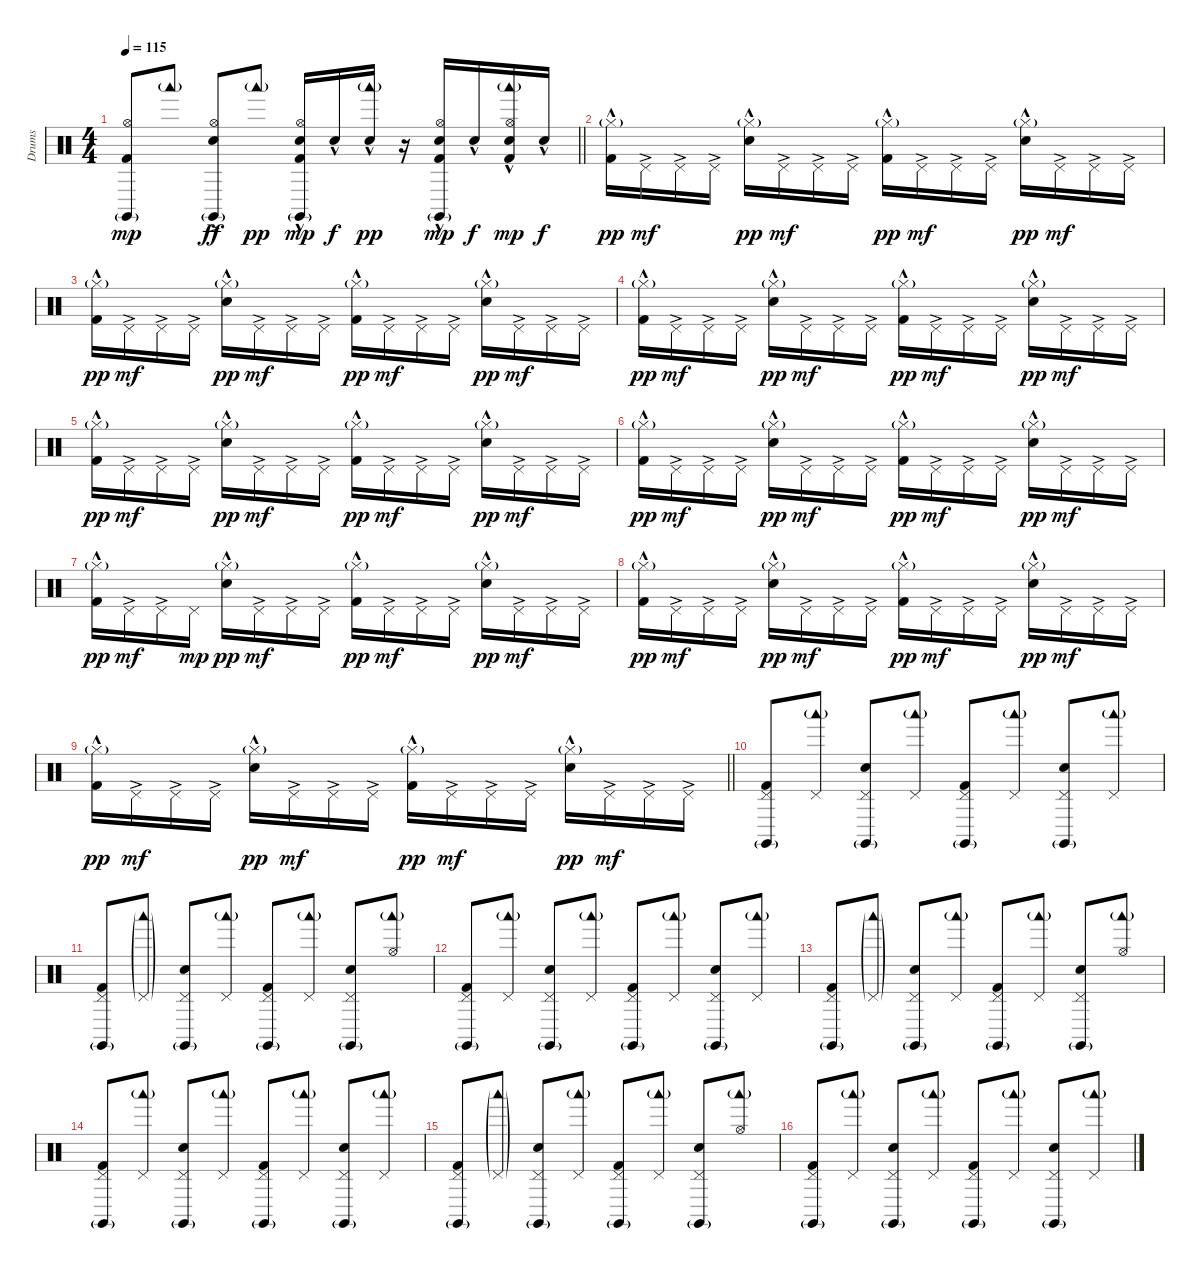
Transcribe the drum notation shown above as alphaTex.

\track ("Drums" "Drums") {instrument percussion}
\staff {score}
\articulation defaults
\ts (4 4)
\tempo 115
\clef neutral
\barLineRight lightlight
\ks c
("Claves (hit)"{g} "Hi-Hat (open)" "Kick (hit) 2").8{dy mp} "Woodblock low (hit)"{g}.8 ("Claves (hit)"{g} "Hi-Hat (open)" "Electric Snare (hit)"{ac}).8{dy ff} "Woodblock low (hit)"{g}.8{dy pp} ("Claves (hit)"{g} "Hi-Hat (open)" "Electric Snare (hit)"{hac} "Kick (hit) 2").16{dy mp} "Electric Snare (hit)"{hac}.16{dy f} ("Woodblock low (hit)"{g} "Electric Snare (hit)"{hac}).16{dy pp} r.16 ("Claves (hit)"{g} "Hi-Hat (open)" "Electric Snare (hit)"{hac} "Kick (hit) 2").16{dy mp} "Electric Snare (hit)"{hac}.16{dy f} ("Woodblock low (hit)"{g} "Hi-Hat (open)" "Electric Snare (hit)"{hac} "Kick (hit) 2").16{dy mp} "Electric Snare (hit)"{hac}.16{dy f} |
("Hi-Hat (closed)"{g} "Kick (hit) 2"{hac}).16{dy pp} "Pedal Hi-Hat (hit)"{ac}.16{dy mf} "Pedal Hi-Hat (hit)"{ac}.16 "Pedal Hi-Hat (hit)"{ac}.16 ("Hi-Hat (closed)"{g} "Electric Snare (hit)"{hac}).16{dy pp} "Pedal Hi-Hat (hit)"{ac}.16{dy mf} "Pedal Hi-Hat (hit)"{ac}.16 "Pedal Hi-Hat (hit)"{ac}.16 ("Hi-Hat (closed)"{g} "Kick (hit) 2"{hac}).16{dy pp} "Pedal Hi-Hat (hit)"{ac}.16{dy mf} "Pedal Hi-Hat (hit)"{ac}.16 "Pedal Hi-Hat (hit)"{ac}.16 ("Hi-Hat (closed)"{g} "Electric Snare (hit)"{hac}).16{dy pp} "Pedal Hi-Hat (hit)"{ac}.16{dy mf} "Pedal Hi-Hat (hit)"{ac}.16 "Pedal Hi-Hat (hit)"{ac}.16 |
("Hi-Hat (closed)"{g} "Kick (hit) 2"{hac}).16{dy pp} "Pedal Hi-Hat (hit)"{ac}.16{dy mf} "Pedal Hi-Hat (hit)"{ac}.16 "Pedal Hi-Hat (hit)"{ac}.16 ("Hi-Hat (closed)"{g} "Electric Snare (hit)"{hac}).16{dy pp} "Pedal Hi-Hat (hit)"{ac}.16{dy mf} "Pedal Hi-Hat (hit)"{ac}.16 "Pedal Hi-Hat (hit)"{ac}.16 ("Hi-Hat (closed)"{g} "Kick (hit) 2"{hac}).16{dy pp} "Pedal Hi-Hat (hit)"{ac}.16{dy mf} "Pedal Hi-Hat (hit)"{ac}.16 "Pedal Hi-Hat (hit)"{ac}.16 ("Hi-Hat (closed)"{g} "Electric Snare (hit)"{hac}).16{dy pp} "Pedal Hi-Hat (hit)"{ac}.16{dy mf} "Pedal Hi-Hat (hit)"{ac}.16 "Pedal Hi-Hat (hit)"{ac}.16 |
("Hi-Hat (closed)"{g} "Kick (hit) 2"{hac}).16{dy pp} "Pedal Hi-Hat (hit)"{ac}.16{dy mf} "Pedal Hi-Hat (hit)"{ac}.16 "Pedal Hi-Hat (hit)"{ac}.16 ("Hi-Hat (closed)"{g} "Electric Snare (hit)"{hac}).16{dy pp} "Pedal Hi-Hat (hit)"{ac}.16{dy mf} "Pedal Hi-Hat (hit)"{ac}.16 "Pedal Hi-Hat (hit)"{ac}.16 ("Hi-Hat (closed)"{g} "Kick (hit) 2"{hac}).16{dy pp} "Pedal Hi-Hat (hit)"{ac}.16{dy mf} "Pedal Hi-Hat (hit)"{ac}.16 "Pedal Hi-Hat (hit)"{ac}.16 ("Hi-Hat (closed)"{g} "Electric Snare (hit)"{hac}).16{dy pp} "Pedal Hi-Hat (hit)"{ac}.16{dy mf} "Pedal Hi-Hat (hit)"{ac}.16 "Pedal Hi-Hat (hit)"{ac}.16 |
("Hi-Hat (closed)"{g} "Kick (hit) 2"{hac}).16{dy pp} "Pedal Hi-Hat (hit)"{ac}.16{dy mf} "Pedal Hi-Hat (hit)"{ac}.16 "Pedal Hi-Hat (hit)"{ac}.16 ("Hi-Hat (closed)"{g} "Electric Snare (hit)"{hac}).16{dy pp} "Pedal Hi-Hat (hit)"{ac}.16{dy mf} "Pedal Hi-Hat (hit)"{ac}.16 "Pedal Hi-Hat (hit)"{ac}.16 ("Hi-Hat (closed)"{g} "Kick (hit) 2"{hac}).16{dy pp} "Pedal Hi-Hat (hit)"{ac}.16{dy mf} "Pedal Hi-Hat (hit)"{ac}.16 "Pedal Hi-Hat (hit)"{ac}.16 ("Hi-Hat (closed)"{g} "Electric Snare (hit)"{hac}).16{dy pp} "Pedal Hi-Hat (hit)"{ac}.16{dy mf} "Pedal Hi-Hat (hit)"{ac}.16 "Pedal Hi-Hat (hit)"{ac}.16 |
("Hi-Hat (closed)"{g} "Kick (hit) 2"{hac}).16{dy pp} "Pedal Hi-Hat (hit)"{ac}.16{dy mf} "Pedal Hi-Hat (hit)"{ac}.16 "Pedal Hi-Hat (hit)"{ac}.16 ("Hi-Hat (closed)"{g} "Electric Snare (hit)"{hac}).16{dy pp} "Pedal Hi-Hat (hit)"{ac}.16{dy mf} "Pedal Hi-Hat (hit)"{ac}.16 "Pedal Hi-Hat (hit)"{ac}.16 ("Hi-Hat (closed)"{g} "Kick (hit) 2"{hac}).16{dy pp} "Pedal Hi-Hat (hit)"{ac}.16{dy mf} "Pedal Hi-Hat (hit)"{ac}.16 "Pedal Hi-Hat (hit)"{ac}.16 ("Hi-Hat (closed)"{g} "Electric Snare (hit)"{hac}).16{dy pp} "Pedal Hi-Hat (hit)"{ac}.16{dy mf} "Pedal Hi-Hat (hit)"{ac}.16 "Pedal Hi-Hat (hit)"{ac}.16 |
("Hi-Hat (closed)"{g} "Kick (hit) 2"{hac}).16{dy pp} "Pedal Hi-Hat (hit)"{ac}.16{dy mf} "Pedal Hi-Hat (hit)"{ac}.16 "Pedal Hi-Hat (hit)".16{dy mp} ("Hi-Hat (closed)"{g} "Electric Snare (hit)"{hac}).16{dy pp} "Pedal Hi-Hat (hit)"{ac}.16{dy mf} "Pedal Hi-Hat (hit)"{ac}.16 "Pedal Hi-Hat (hit)"{ac}.16 ("Hi-Hat (closed)"{g} "Kick (hit) 2"{hac}).16{dy pp} "Pedal Hi-Hat (hit)"{ac}.16{dy mf} "Pedal Hi-Hat (hit)"{ac}.16 "Pedal Hi-Hat (hit)"{ac}.16 ("Hi-Hat (closed)"{g} "Electric Snare (hit)"{hac}).16{dy pp} "Pedal Hi-Hat (hit)"{ac}.16{dy mf} "Pedal Hi-Hat (hit)"{ac}.16 "Pedal Hi-Hat (hit)"{ac}.16 |
("Hi-Hat (closed)"{g} "Kick (hit) 2"{hac}).16{dy pp} "Pedal Hi-Hat (hit)"{ac}.16{dy mf} "Pedal Hi-Hat (hit)"{ac}.16 "Pedal Hi-Hat (hit)"{ac}.16 ("Hi-Hat (closed)"{g} "Electric Snare (hit)"{hac}).16{dy pp} "Pedal Hi-Hat (hit)"{ac}.16{dy mf} "Pedal Hi-Hat (hit)"{ac}.16 "Pedal Hi-Hat (hit)"{ac}.16 ("Hi-Hat (closed)"{g} "Kick (hit) 2"{hac}).16{dy pp} "Pedal Hi-Hat (hit)"{ac}.16{dy mf} "Pedal Hi-Hat (hit)"{ac}.16 "Pedal Hi-Hat (hit)"{ac}.16 ("Hi-Hat (closed)"{g} "Electric Snare (hit)"{hac}).16{dy pp} "Pedal Hi-Hat (hit)"{ac}.16{dy mf} "Pedal Hi-Hat (hit)"{ac}.16 "Pedal Hi-Hat (hit)"{ac}.16 |
\barLineRight lightlight
("Hi-Hat (closed)"{g} "Kick (hit) 2"{hac}).16{dy pp} "Pedal Hi-Hat (hit)"{ac}.16{dy mf} "Pedal Hi-Hat (hit)"{ac}.16 "Pedal Hi-Hat (hit)"{ac}.16 ("Hi-Hat (closed)"{g} "Electric Snare (hit)"{hac}).16{dy pp} "Pedal Hi-Hat (hit)"{ac}.16{dy mf} "Pedal Hi-Hat (hit)"{ac}.16 "Pedal Hi-Hat (hit)"{ac}.16 ("Hi-Hat (closed)"{g} "Kick (hit) 2"{hac}).16{dy pp} "Pedal Hi-Hat (hit)"{ac}.16{dy mf} "Pedal Hi-Hat (hit)"{ac}.16 "Pedal Hi-Hat (hit)"{ac}.16 ("Hi-Hat (closed)"{g} "Electric Snare (hit)"{hac}).16{dy pp} "Pedal Hi-Hat (hit)"{ac}.16{dy mf} "Pedal Hi-Hat (hit)"{ac}.16 "Pedal Hi-Hat (hit)"{ac}.16 |
("Claves (hit)"{g} "Pedal Hi-Hat (hit)" "Kick (hit) 2").8 ("Woodblock low (hit)"{g} "Pedal Hi-Hat (hit)").8 ("Claves (hit)"{g} "Pedal Hi-Hat (hit)" "Electric Snare (hit)").8 ("Woodblock low (hit)"{g} "Pedal Hi-Hat (hit)").8 ("Claves (hit)"{g} "Pedal Hi-Hat (hit)" "Kick (hit) 2").8 ("Woodblock low (hit)"{g} "Pedal Hi-Hat (hit)").8 ("Claves (hit)"{g} "Pedal Hi-Hat (hit)" "Electric Snare (hit)").8 ("Woodblock low (hit)"{g} "Pedal Hi-Hat (hit)").8 |
("Claves (hit)"{g} "Pedal Hi-Hat (hit)" "Kick (hit) 2").8 ("Woodblock low (hit)"{g} "Pedal Hi-Hat (hit)"{g}).8 ("Claves (hit)"{g} "Pedal Hi-Hat (hit)" "Electric Snare (hit)").8 ("Woodblock low (hit)"{g} "Pedal Hi-Hat (hit)").8 ("Claves (hit)"{g} "Pedal Hi-Hat (hit)" "Kick (hit) 2").8 ("Woodblock low (hit)"{g} "Pedal Hi-Hat (hit)").8 ("Claves (hit)"{g} "Pedal Hi-Hat (hit)" "Electric Snare (hit)").8 ("Woodblock low (hit)"{g} "Hi-Hat (open)").8 |
("Claves (hit)"{g} "Pedal Hi-Hat (hit)" "Kick (hit) 2").8 ("Woodblock low (hit)"{g} "Pedal Hi-Hat (hit)").8 ("Claves (hit)"{g} "Pedal Hi-Hat (hit)" "Electric Snare (hit)").8 ("Woodblock low (hit)"{g} "Pedal Hi-Hat (hit)").8 ("Claves (hit)"{g} "Pedal Hi-Hat (hit)" "Kick (hit) 2").8 ("Woodblock low (hit)"{g} "Pedal Hi-Hat (hit)").8 ("Claves (hit)"{g} "Pedal Hi-Hat (hit)" "Electric Snare (hit)").8 ("Woodblock low (hit)"{g} "Pedal Hi-Hat (hit)").8 |
("Claves (hit)"{g} "Pedal Hi-Hat (hit)" "Kick (hit) 2").8 ("Woodblock low (hit)"{g} "Pedal Hi-Hat (hit)"{g}).8 ("Claves (hit)"{g} "Pedal Hi-Hat (hit)" "Electric Snare (hit)").8 ("Woodblock low (hit)"{g} "Pedal Hi-Hat (hit)").8 ("Claves (hit)"{g} "Pedal Hi-Hat (hit)" "Kick (hit) 2").8 ("Woodblock low (hit)"{g} "Pedal Hi-Hat (hit)").8 ("Claves (hit)"{g} "Pedal Hi-Hat (hit)" "Electric Snare (hit)").8 ("Woodblock low (hit)"{g} "Hi-Hat (open)").8 |
("Claves (hit)"{g} "Pedal Hi-Hat (hit)" "Kick (hit) 2").8 ("Woodblock low (hit)"{g} "Pedal Hi-Hat (hit)").8 ("Claves (hit)"{g} "Pedal Hi-Hat (hit)" "Electric Snare (hit)").8 ("Woodblock low (hit)"{g} "Pedal Hi-Hat (hit)").8 ("Claves (hit)"{g} "Pedal Hi-Hat (hit)" "Kick (hit) 2").8 ("Woodblock low (hit)"{g} "Pedal Hi-Hat (hit)").8 ("Claves (hit)"{g} "Pedal Hi-Hat (hit)" "Electric Snare (hit)").8 ("Woodblock low (hit)"{g} "Pedal Hi-Hat (hit)").8 |
("Claves (hit)"{g} "Pedal Hi-Hat (hit)" "Kick (hit) 2").8 ("Woodblock low (hit)"{g} "Pedal Hi-Hat (hit)"{g}).8 ("Claves (hit)"{g} "Pedal Hi-Hat (hit)" "Electric Snare (hit)").8 ("Woodblock low (hit)"{g} "Pedal Hi-Hat (hit)").8 ("Claves (hit)"{g} "Pedal Hi-Hat (hit)" "Kick (hit) 2").8 ("Woodblock low (hit)"{g} "Pedal Hi-Hat (hit)").8 ("Claves (hit)"{g} "Pedal Hi-Hat (hit)" "Electric Snare (hit)").8 ("Woodblock low (hit)"{g} "Hi-Hat (open)").8 |
("Claves (hit)"{g} "Pedal Hi-Hat (hit)" "Kick (hit) 2").8 ("Woodblock low (hit)"{g} "Pedal Hi-Hat (hit)").8 ("Claves (hit)"{g} "Pedal Hi-Hat (hit)" "Electric Snare (hit)").8 ("Woodblock low (hit)"{g} "Pedal Hi-Hat (hit)").8 ("Claves (hit)"{g} "Pedal Hi-Hat (hit)" "Kick (hit) 2").8 ("Woodblock low (hit)"{g} "Pedal Hi-Hat (hit)").8 ("Claves (hit)"{g} "Pedal Hi-Hat (hit)" "Electric Snare (hit)").8 ("Woodblock low (hit)"{g} "Pedal Hi-Hat (hit)").8
